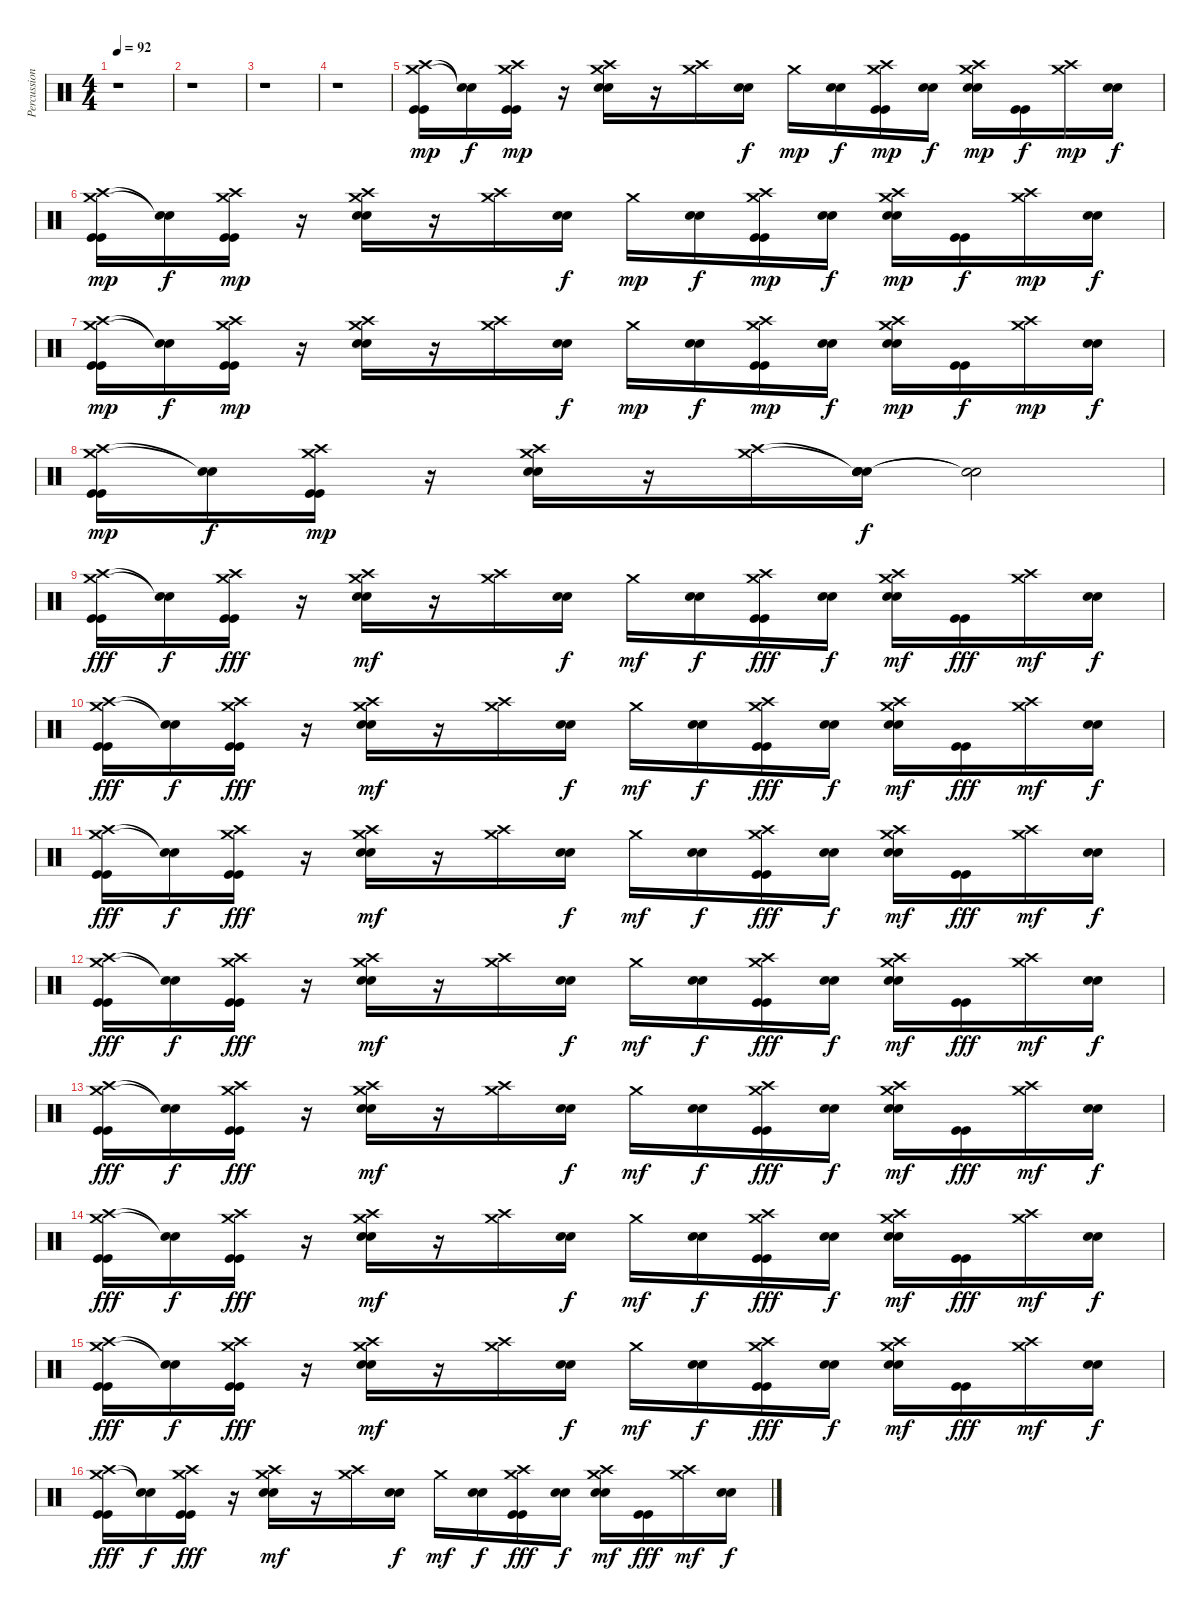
\track ("Percussions" "Percussion") {instrument percussion}
\staff {score}
\articulation defaults
\ts (4 4)
\tempo 92
\clef neutral
\ks c
r.1{dy mp} |
r.1 |
r.1 |
r.1 |
("Crash medium (hit)" "Crash high (hit)" "Kick (hit)" "Kick (hit)").16 ("Snare (hit)"{t} "Snare (hit)"{t}).16{dy f} ("Crash medium (hit)" "Crash high (hit)" "Kick (hit)" "Kick (hit)").16{dy mp} r.16 ("Crash medium (hit)" "Crash high (hit)" "Electric Snare (hit)" "Electric Snare (hit)").16 r.16 ("Crash medium (hit)" "Crash high (hit)").16 ("Electric Snare (hit)" "Electric Snare (hit)").16{dy f} "Crash medium (hit)".16{dy mp} ("Electric Snare (hit)" "Electric Snare (hit)").16{dy f} ("Crash medium (hit)" "Crash high (hit)" "Kick (hit)" "Kick (hit)").16{dy mp} ("Electric Snare (hit)" "Electric Snare (hit)").16{dy f} ("Crash medium (hit)" "Crash high (hit)" "Electric Snare (hit)" "Electric Snare (hit)").16{dy mp} ("Kick (hit)" "Kick (hit)").16{dy f} ("Crash medium (hit)" "Crash high (hit)").16{dy mp} ("Electric Snare (hit)" "Electric Snare (hit)").16{dy f} |
("Crash medium (hit)" "Crash high (hit)" "Kick (hit)" "Kick (hit)").16{dy mp} ("Snare (hit)"{t} "Snare (hit)"{t}).16{dy f} ("Crash medium (hit)" "Crash high (hit)" "Kick (hit)" "Kick (hit)").16{dy mp} r.16 ("Crash medium (hit)" "Crash high (hit)" "Electric Snare (hit)" "Electric Snare (hit)").16 r.16 ("Crash medium (hit)" "Crash high (hit)").16 ("Electric Snare (hit)" "Electric Snare (hit)").16{dy f} "Crash medium (hit)".16{dy mp} ("Electric Snare (hit)" "Electric Snare (hit)").16{dy f} ("Crash medium (hit)" "Crash high (hit)" "Kick (hit)" "Kick (hit)").16{dy mp} ("Electric Snare (hit)" "Electric Snare (hit)").16{dy f} ("Crash medium (hit)" "Crash high (hit)" "Electric Snare (hit)" "Electric Snare (hit)").16{dy mp} ("Kick (hit)" "Kick (hit)").16{dy f} ("Crash medium (hit)" "Crash high (hit)").16{dy mp} ("Electric Snare (hit)" "Electric Snare (hit)").16{dy f} |
("Crash medium (hit)" "Crash high (hit)" "Kick (hit)" "Kick (hit)").16{dy mp} ("Snare (hit)"{t} "Snare (hit)"{t}).16{dy f} ("Crash medium (hit)" "Crash high (hit)" "Kick (hit)" "Kick (hit)").16{dy mp} r.16 ("Crash medium (hit)" "Crash high (hit)" "Electric Snare (hit)" "Electric Snare (hit)").16 r.16 ("Crash medium (hit)" "Crash high (hit)").16 ("Electric Snare (hit)" "Electric Snare (hit)").16{dy f} "Crash medium (hit)".16{dy mp} ("Electric Snare (hit)" "Electric Snare (hit)").16{dy f} ("Crash medium (hit)" "Crash high (hit)" "Kick (hit)" "Kick (hit)").16{dy mp} ("Electric Snare (hit)" "Electric Snare (hit)").16{dy f} ("Crash medium (hit)" "Crash high (hit)" "Electric Snare (hit)" "Electric Snare (hit)").16{dy mp} ("Kick (hit)" "Kick (hit)").16{dy f} ("Crash medium (hit)" "Crash high (hit)").16{dy mp} ("Electric Snare (hit)" "Electric Snare (hit)").16{dy f} |
("Crash medium (hit)" "Crash high (hit)" "Kick (hit)" "Kick (hit)").16{dy mp} ("Snare (hit)"{t} "Snare (hit)"{t}).16{dy f} ("Crash medium (hit)" "Crash high (hit)" "Kick (hit)" "Kick (hit)").16{dy mp} r.16 ("Crash medium (hit)" "Crash high (hit)" "Electric Snare (hit)" "Electric Snare (hit)").16 r.16 ("Crash medium (hit)" "Crash high (hit)").16 ("Snare (hit)"{t} "Snare (hit)"{t} "Electric Snare (hit)" "Electric Snare (hit)").16{dy f} ("Snare (hit)"{t} "Snare (hit)"{t}).2 |
("Crash medium (hit)" "Crash high (hit)" "Kick (hit)" "Kick (hit)").16{dy fff} ("Snare (hit)"{t} "Snare (hit)"{t}).16{dy f} ("Crash medium (hit)" "Crash high (hit)" "Kick (hit)" "Kick (hit)").16{dy fff} r.16 ("Crash medium (hit)" "Crash high (hit)" "Electric Snare (hit)" "Electric Snare (hit)").16{dy mf} r.16 ("Crash medium (hit)" "Crash high (hit)").16 ("Electric Snare (hit)" "Electric Snare (hit)").16{dy f} "Crash medium (hit)".16{dy mf} ("Electric Snare (hit)" "Electric Snare (hit)").16{dy f} ("Crash medium (hit)" "Crash high (hit)" "Kick (hit)" "Kick (hit)").16{dy fff} ("Electric Snare (hit)" "Electric Snare (hit)").16{dy f} ("Crash medium (hit)" "Crash high (hit)" "Electric Snare (hit)" "Electric Snare (hit)").16{dy mf} ("Kick (hit)" "Kick (hit)").16{dy fff} ("Crash medium (hit)" "Crash high (hit)").16{dy mf} ("Electric Snare (hit)" "Electric Snare (hit)").16{dy f} |
("Crash medium (hit)" "Crash high (hit)" "Kick (hit)" "Kick (hit)").16{dy fff} ("Snare (hit)"{t} "Snare (hit)"{t}).16{dy f} ("Crash medium (hit)" "Crash high (hit)" "Kick (hit)" "Kick (hit)").16{dy fff} r.16 ("Crash medium (hit)" "Crash high (hit)" "Electric Snare (hit)" "Electric Snare (hit)").16{dy mf} r.16 ("Crash medium (hit)" "Crash high (hit)").16 ("Electric Snare (hit)" "Electric Snare (hit)").16{dy f} "Crash medium (hit)".16{dy mf} ("Electric Snare (hit)" "Electric Snare (hit)").16{dy f} ("Crash medium (hit)" "Crash high (hit)" "Kick (hit)" "Kick (hit)").16{dy fff} ("Electric Snare (hit)" "Electric Snare (hit)").16{dy f} ("Crash medium (hit)" "Crash high (hit)" "Electric Snare (hit)" "Electric Snare (hit)").16{dy mf} ("Kick (hit)" "Kick (hit)").16{dy fff} ("Crash medium (hit)" "Crash high (hit)").16{dy mf} ("Electric Snare (hit)" "Electric Snare (hit)").16{dy f} |
("Crash medium (hit)" "Crash high (hit)" "Kick (hit)" "Kick (hit)").16{dy fff} ("Snare (hit)"{t} "Snare (hit)"{t}).16{dy f} ("Crash medium (hit)" "Crash high (hit)" "Kick (hit)" "Kick (hit)").16{dy fff} r.16 ("Crash medium (hit)" "Crash high (hit)" "Electric Snare (hit)" "Electric Snare (hit)").16{dy mf} r.16 ("Crash medium (hit)" "Crash high (hit)").16 ("Electric Snare (hit)" "Electric Snare (hit)").16{dy f} "Crash medium (hit)".16{dy mf} ("Electric Snare (hit)" "Electric Snare (hit)").16{dy f} ("Crash medium (hit)" "Crash high (hit)" "Kick (hit)" "Kick (hit)").16{dy fff} ("Electric Snare (hit)" "Electric Snare (hit)").16{dy f} ("Crash medium (hit)" "Crash high (hit)" "Electric Snare (hit)" "Electric Snare (hit)").16{dy mf} ("Kick (hit)" "Kick (hit)").16{dy fff} ("Crash medium (hit)" "Crash high (hit)").16{dy mf} ("Electric Snare (hit)" "Electric Snare (hit)").16{dy f} |
("Crash medium (hit)" "Crash high (hit)" "Kick (hit)" "Kick (hit)").16{dy fff} ("Snare (hit)"{t} "Snare (hit)"{t}).16{dy f} ("Crash medium (hit)" "Crash high (hit)" "Kick (hit)" "Kick (hit)").16{dy fff} r.16 ("Crash medium (hit)" "Crash high (hit)" "Electric Snare (hit)" "Electric Snare (hit)").16{dy mf} r.16 ("Crash medium (hit)" "Crash high (hit)").16 ("Electric Snare (hit)" "Electric Snare (hit)").16{dy f} "Crash medium (hit)".16{dy mf} ("Electric Snare (hit)" "Electric Snare (hit)").16{dy f} ("Crash medium (hit)" "Crash high (hit)" "Kick (hit)" "Kick (hit)").16{dy fff} ("Electric Snare (hit)" "Electric Snare (hit)").16{dy f} ("Crash medium (hit)" "Crash high (hit)" "Electric Snare (hit)" "Electric Snare (hit)").16{dy mf} ("Kick (hit)" "Kick (hit)").16{dy fff} ("Crash medium (hit)" "Crash high (hit)").16{dy mf} ("Electric Snare (hit)" "Electric Snare (hit)").16{dy f} |
("Crash medium (hit)" "Crash high (hit)" "Kick (hit)" "Kick (hit)").16{dy fff} ("Snare (hit)"{t} "Snare (hit)"{t}).16{dy f} ("Crash medium (hit)" "Crash high (hit)" "Kick (hit)" "Kick (hit)").16{dy fff} r.16 ("Crash medium (hit)" "Crash high (hit)" "Electric Snare (hit)" "Electric Snare (hit)").16{dy mf} r.16 ("Crash medium (hit)" "Crash high (hit)").16 ("Electric Snare (hit)" "Electric Snare (hit)").16{dy f} "Crash medium (hit)".16{dy mf} ("Electric Snare (hit)" "Electric Snare (hit)").16{dy f} ("Crash medium (hit)" "Crash high (hit)" "Kick (hit)" "Kick (hit)").16{dy fff} ("Electric Snare (hit)" "Electric Snare (hit)").16{dy f} ("Crash medium (hit)" "Crash high (hit)" "Electric Snare (hit)" "Electric Snare (hit)").16{dy mf} ("Kick (hit)" "Kick (hit)").16{dy fff} ("Crash medium (hit)" "Crash high (hit)").16{dy mf} ("Electric Snare (hit)" "Electric Snare (hit)").16{dy f} |
("Crash medium (hit)" "Crash high (hit)" "Kick (hit)" "Kick (hit)").16{dy fff} ("Snare (hit)"{t} "Snare (hit)"{t}).16{dy f} ("Crash medium (hit)" "Crash high (hit)" "Kick (hit)" "Kick (hit)").16{dy fff} r.16 ("Crash medium (hit)" "Crash high (hit)" "Electric Snare (hit)" "Electric Snare (hit)").16{dy mf} r.16 ("Crash medium (hit)" "Crash high (hit)").16 ("Electric Snare (hit)" "Electric Snare (hit)").16{dy f} "Crash medium (hit)".16{dy mf} ("Electric Snare (hit)" "Electric Snare (hit)").16{dy f} ("Crash medium (hit)" "Crash high (hit)" "Kick (hit)" "Kick (hit)").16{dy fff} ("Electric Snare (hit)" "Electric Snare (hit)").16{dy f} ("Crash medium (hit)" "Crash high (hit)" "Electric Snare (hit)" "Electric Snare (hit)").16{dy mf} ("Kick (hit)" "Kick (hit)").16{dy fff} ("Crash medium (hit)" "Crash high (hit)").16{dy mf} ("Electric Snare (hit)" "Electric Snare (hit)").16{dy f} |
("Crash medium (hit)" "Crash high (hit)" "Kick (hit)" "Kick (hit)").16{dy fff} ("Snare (hit)"{t} "Snare (hit)"{t}).16{dy f} ("Crash medium (hit)" "Crash high (hit)" "Kick (hit)" "Kick (hit)").16{dy fff} r.16 ("Crash medium (hit)" "Crash high (hit)" "Electric Snare (hit)" "Electric Snare (hit)").16{dy mf} r.16 ("Crash medium (hit)" "Crash high (hit)").16 ("Electric Snare (hit)" "Electric Snare (hit)").16{dy f} "Crash medium (hit)".16{dy mf} ("Electric Snare (hit)" "Electric Snare (hit)").16{dy f} ("Crash medium (hit)" "Crash high (hit)" "Kick (hit)" "Kick (hit)").16{dy fff} ("Electric Snare (hit)" "Electric Snare (hit)").16{dy f} ("Crash medium (hit)" "Crash high (hit)" "Electric Snare (hit)" "Electric Snare (hit)").16{dy mf} ("Kick (hit)" "Kick (hit)").16{dy fff} ("Crash medium (hit)" "Crash high (hit)").16{dy mf} ("Electric Snare (hit)" "Electric Snare (hit)").16{dy f} |
("Crash medium (hit)" "Crash high (hit)" "Kick (hit)" "Kick (hit)").16{dy fff} ("Snare (hit)"{t} "Snare (hit)"{t}).16{dy f} ("Crash medium (hit)" "Crash high (hit)" "Kick (hit)" "Kick (hit)").16{dy fff} r.16 ("Crash medium (hit)" "Crash high (hit)" "Electric Snare (hit)" "Electric Snare (hit)").16{dy mf} r.16 ("Crash medium (hit)" "Crash high (hit)").16 ("Electric Snare (hit)" "Electric Snare (hit)").16{dy f} "Crash medium (hit)".16{dy mf} ("Electric Snare (hit)" "Electric Snare (hit)").16{dy f} ("Crash medium (hit)" "Crash high (hit)" "Kick (hit)" "Kick (hit)").16{dy fff} ("Electric Snare (hit)" "Electric Snare (hit)").16{dy f} ("Crash medium (hit)" "Crash high (hit)" "Electric Snare (hit)" "Electric Snare (hit)").16{dy mf} ("Kick (hit)" "Kick (hit)").16{dy fff} ("Crash medium (hit)" "Crash high (hit)").16{dy mf} ("Electric Snare (hit)" "Electric Snare (hit)").16{dy f}
